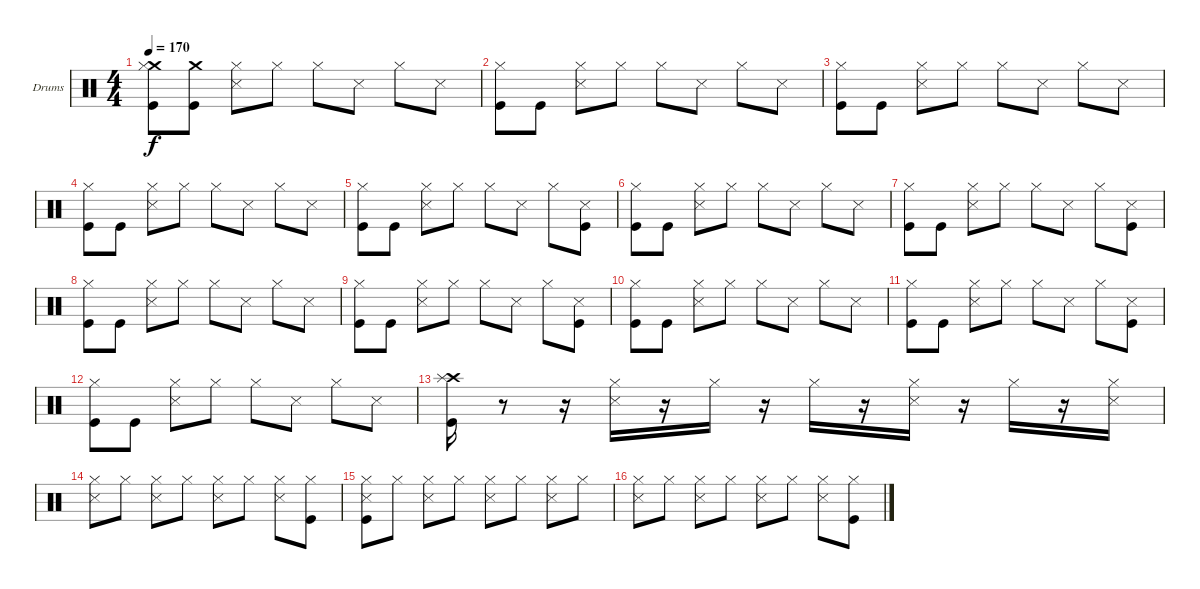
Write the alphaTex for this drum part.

\bracketExtendMode groupsimilarinstruments
\firstSystemTrackNameOrientation horizontal
\otherSystemsTrackNameOrientation horizontal
\track ("Drumkit" "Drums") {instrument percussion}
\staff {score}
\articulation defaults
\ts (4 4)
\tempo 170
\clef neutral
\ks c
("Kick (hit)" "Crash medium (hit)" "Hi-Hat (closed)").8{dy f} ("Kick (hit)" "Crash medium (hit)").8 ("Snare (side stick) 3" "Hi-Hat (closed)").8 "Hi-Hat (closed)".8 "Hi-Hat (closed)".8 "Snare (side stick) 3".8 "Hi-Hat (closed)".8 "Snare (side stick) 3".8 |
("Kick (hit)" "Hi-Hat (closed)").8 "Kick (hit)".8 ("Snare (side stick) 3" "Hi-Hat (closed)").8 "Hi-Hat (closed)".8 "Hi-Hat (closed)".8 "Snare (side stick) 3".8 "Hi-Hat (closed)".8 "Snare (side stick) 3".8 |
("Kick (hit)" "Hi-Hat (closed)").8 "Kick (hit)".8 ("Snare (side stick) 3" "Hi-Hat (closed)").8 "Hi-Hat (closed)".8 "Hi-Hat (closed)".8 "Snare (side stick) 3".8 "Hi-Hat (closed)".8 "Snare (side stick) 3".8 |
("Kick (hit)" "Hi-Hat (closed)").8 "Kick (hit)".8 ("Snare (side stick) 3" "Hi-Hat (closed)").8 "Hi-Hat (closed)".8 "Hi-Hat (closed)".8 "Snare (side stick) 3".8 "Hi-Hat (closed)".8 "Snare (side stick) 3".8 |
("Kick (hit)" "Hi-Hat (closed)").8 "Kick (hit)".8 ("Snare (side stick) 3" "Hi-Hat (closed)").8 "Hi-Hat (closed)".8 "Hi-Hat (closed)".8 "Snare (side stick) 3".8 "Hi-Hat (closed)".8 ("Snare (side stick) 3" "Kick (hit)").8 |
("Kick (hit)" "Hi-Hat (closed)").8 "Kick (hit)".8 ("Snare (side stick) 3" "Hi-Hat (closed)").8 "Hi-Hat (closed)".8 "Hi-Hat (closed)".8 "Snare (side stick) 3".8 "Hi-Hat (closed)".8 "Snare (side stick) 3".8 |
("Kick (hit)" "Hi-Hat (closed)").8 "Kick (hit)".8 ("Snare (side stick) 3" "Hi-Hat (closed)").8 "Hi-Hat (closed)".8 "Hi-Hat (closed)".8 "Snare (side stick) 3".8 "Hi-Hat (closed)".8 ("Snare (side stick) 3" "Kick (hit)").8 |
("Kick (hit)" "Hi-Hat (closed)").8 "Kick (hit)".8 ("Snare (side stick) 3" "Hi-Hat (closed)").8 "Hi-Hat (closed)".8 "Hi-Hat (closed)".8 "Snare (side stick) 3".8 "Hi-Hat (closed)".8 "Snare (side stick) 3".8 |
("Kick (hit)" "Hi-Hat (closed)").8 "Kick (hit)".8 ("Snare (side stick) 3" "Hi-Hat (closed)").8 "Hi-Hat (closed)".8 "Hi-Hat (closed)".8 "Snare (side stick) 3".8 "Hi-Hat (closed)".8 ("Snare (side stick) 3" "Kick (hit)").8 |
("Kick (hit)" "Hi-Hat (closed)").8 "Kick (hit)".8 ("Snare (side stick) 3" "Hi-Hat (closed)").8 "Hi-Hat (closed)".8 "Hi-Hat (closed)".8 "Snare (side stick) 3".8 "Hi-Hat (closed)".8 "Snare (side stick) 3".8 |
("Kick (hit)" "Hi-Hat (closed)").8 "Kick (hit)".8 ("Snare (side stick) 3" "Hi-Hat (closed)").8 "Hi-Hat (closed)".8 "Hi-Hat (closed)".8 "Snare (side stick) 3".8 "Hi-Hat (closed)".8 ("Snare (side stick) 3" "Kick (hit)").8 |
("Kick (hit)" "Hi-Hat (closed)").8 "Kick (hit)".8 ("Snare (side stick) 3" "Hi-Hat (closed)").8 "Hi-Hat (closed)".8 "Hi-Hat (closed)".8 "Snare (side stick) 3".8 "Hi-Hat (closed)".8 "Snare (side stick) 3".8 |
("Kick (hit)" "Crash high (hit)" "Splash (hit)").16 r.8 r.16 ("Snare (side stick) 3" "Hi-Hat (closed)").16 r.16 "Hi-Hat (closed)".16 r.16 "Hi-Hat (closed)".16 r.16 ("Snare (side stick) 3" "Hi-Hat (closed)").16 r.16 "Hi-Hat (closed)".16 r.16 ("Snare (side stick) 3" "Hi-Hat (closed)").16 |
("Snare (side stick) 3" "Hi-Hat (closed)").8 "Hi-Hat (closed)".8 ("Hi-Hat (closed)" "Snare (side stick) 3").8 "Hi-Hat (closed)".8 ("Hi-Hat (closed)" "Snare (side stick) 3").8 "Hi-Hat (closed)".8 ("Hi-Hat (closed)" "Snare (side stick) 3").8 ("Hi-Hat (closed)" "Kick (hit)").8 |
("Snare (side stick) 3" "Hi-Hat (closed)" "Kick (hit)").8 "Hi-Hat (closed)".8 ("Hi-Hat (closed)" "Snare (side stick) 3").8 "Hi-Hat (closed)".8 ("Hi-Hat (closed)" "Snare (side stick) 3").8 "Hi-Hat (closed)".8 ("Hi-Hat (closed)" "Snare (side stick) 3").8 "Hi-Hat (closed)".8 |
("Snare (side stick) 3" "Hi-Hat (closed)").8 "Hi-Hat (closed)".8 ("Hi-Hat (closed)" "Snare (side stick) 3").8 "Hi-Hat (closed)".8 ("Hi-Hat (closed)" "Snare (side stick) 3").8 "Hi-Hat (closed)".8 ("Hi-Hat (closed)" "Snare (side stick) 3").8 ("Hi-Hat (closed)" "Kick (hit)").8
